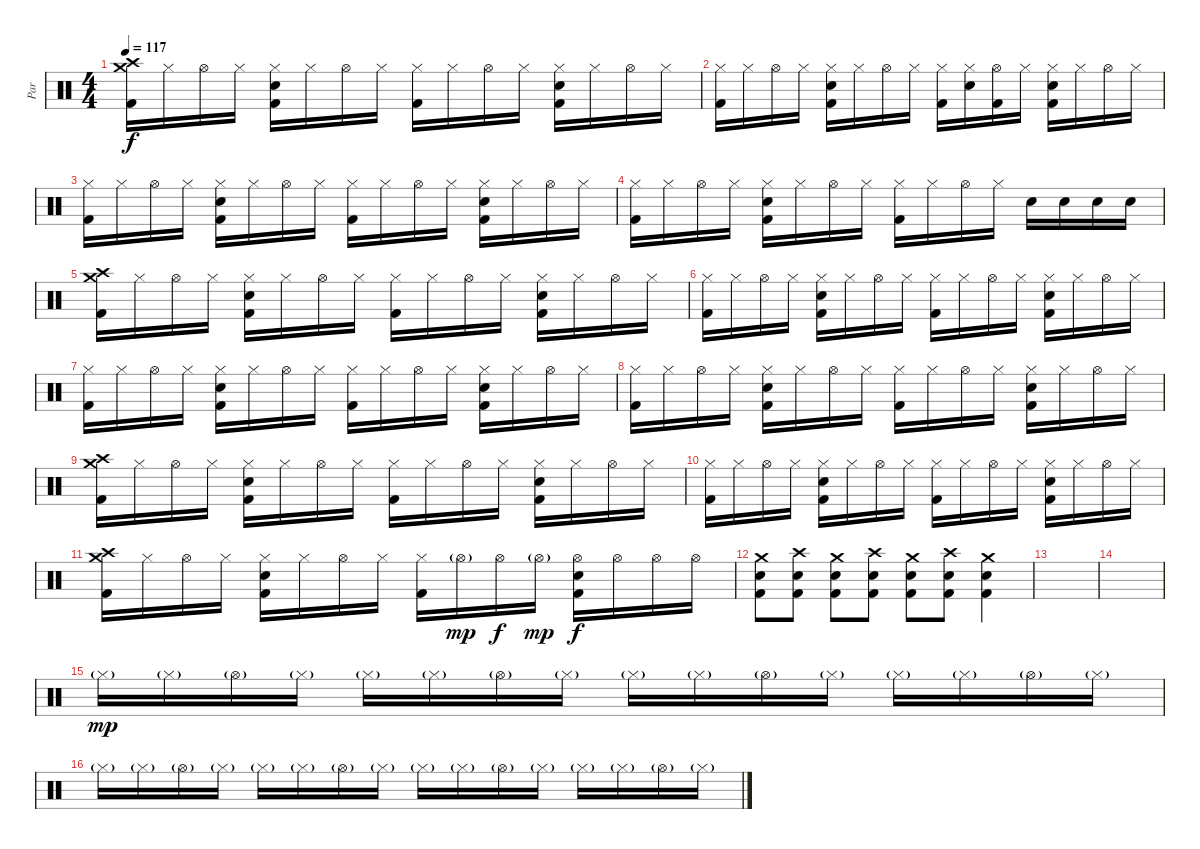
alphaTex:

\track ("Par" "Par") {instrument percussion}
\staff {score}
\articulation defaults
\ts (4 4)
\tempo 117
\clef neutral
\ks c
("Crash medium (hit)" "Crash high (hit)" "Kick (hit) 2").16{dy f} "Hi-Hat (closed)".16 "Hi-Hat (open)".16 "Hi-Hat (closed)".16 ("Hi-Hat (closed)" "Snare (hit) 2" "Kick (hit) 2").16 "Hi-Hat (closed)".16 "Hi-Hat (open)".16 "Hi-Hat (closed)".16 ("Hi-Hat (closed)" "Kick (hit) 2").16 "Hi-Hat (closed)".16 "Hi-Hat (open)".16 "Hi-Hat (closed)".16 ("Hi-Hat (closed)" "Snare (hit) 2" "Kick (hit) 2").16 "Hi-Hat (closed)".16 "Hi-Hat (open)".16 "Hi-Hat (closed)".16 |
("Hi-Hat (closed)" "Kick (hit) 2").16 "Hi-Hat (closed)".16 "Hi-Hat (open)".16 "Hi-Hat (closed)".16 ("Hi-Hat (closed)" "Snare (hit) 2" "Kick (hit) 2").16 "Hi-Hat (closed)".16 "Hi-Hat (open)".16 "Hi-Hat (closed)".16 ("Hi-Hat (closed)" "Kick (hit) 2").16 ("Hi-Hat (closed)" "Snare (hit) 2").16 ("Hi-Hat (open)" "Kick (hit) 2").16 "Hi-Hat (closed)".16 ("Hi-Hat (closed)" "Snare (hit) 2" "Kick (hit) 2").16 "Hi-Hat (closed)".16 "Hi-Hat (open)".16 "Hi-Hat (closed)".16 |
("Hi-Hat (closed)" "Kick (hit) 2").16 "Hi-Hat (closed)".16 "Hi-Hat (open)".16 "Hi-Hat (closed)".16 ("Hi-Hat (closed)" "Snare (hit) 2" "Kick (hit) 2").16 "Hi-Hat (closed)".16 "Hi-Hat (open)".16 "Hi-Hat (closed)".16 ("Hi-Hat (closed)" "Kick (hit) 2").16 "Hi-Hat (closed)".16 "Hi-Hat (open)".16 "Hi-Hat (closed)".16 ("Hi-Hat (closed)" "Snare (hit) 2" "Kick (hit) 2").16 "Hi-Hat (closed)".16 "Hi-Hat (open)".16 "Hi-Hat (closed)".16 |
("Hi-Hat (closed)" "Kick (hit) 2").16 "Hi-Hat (closed)".16 "Hi-Hat (open)".16 "Hi-Hat (closed)".16 ("Hi-Hat (closed)" "Snare (hit) 2" "Kick (hit) 2").16 "Hi-Hat (closed)".16 "Hi-Hat (open)".16 "Hi-Hat (closed)".16 ("Hi-Hat (closed)" "Kick (hit) 2").16 "Hi-Hat (closed)".16 "Hi-Hat (open)".16 "Hi-Hat (closed)".16 "Snare (hit) 2".16 "Snare (hit) 2".16 "Snare (hit) 2".16 "Snare (hit) 2".16 |
("Crash medium (hit)" "Crash high (hit)" "Kick (hit) 2").16 "Hi-Hat (closed)".16 "Hi-Hat (open)".16 "Hi-Hat (closed)".16 ("Hi-Hat (closed)" "Snare (hit) 2" "Kick (hit) 2").16 "Hi-Hat (closed)".16 "Hi-Hat (open)".16 "Hi-Hat (closed)".16 ("Hi-Hat (closed)" "Kick (hit) 2").16 "Hi-Hat (closed)".16 "Hi-Hat (open)".16 "Hi-Hat (closed)".16 ("Hi-Hat (closed)" "Snare (hit) 2" "Kick (hit) 2").16 "Hi-Hat (closed)".16 "Hi-Hat (open)".16 "Hi-Hat (closed)".16 |
("Hi-Hat (closed)" "Kick (hit) 2").16 "Hi-Hat (closed)".16 "Hi-Hat (open)".16 "Hi-Hat (closed)".16 ("Hi-Hat (closed)" "Snare (hit) 2" "Kick (hit) 2").16 "Hi-Hat (closed)".16 "Hi-Hat (open)".16 "Hi-Hat (closed)".16 ("Hi-Hat (closed)" "Kick (hit) 2").16 "Hi-Hat (closed)".16 "Hi-Hat (open)".16 "Hi-Hat (closed)".16 ("Hi-Hat (closed)" "Snare (hit) 2" "Kick (hit) 2").16 "Hi-Hat (closed)".16 "Hi-Hat (open)".16 "Hi-Hat (closed)".16 |
("Hi-Hat (closed)" "Kick (hit) 2").16 "Hi-Hat (closed)".16 "Hi-Hat (open)".16 "Hi-Hat (closed)".16 ("Hi-Hat (closed)" "Snare (hit) 2" "Kick (hit) 2").16 "Hi-Hat (closed)".16 "Hi-Hat (open)".16 "Hi-Hat (closed)".16 ("Hi-Hat (closed)" "Kick (hit) 2").16 "Hi-Hat (closed)".16 "Hi-Hat (open)".16 "Hi-Hat (closed)".16 ("Hi-Hat (closed)" "Snare (hit) 2" "Kick (hit) 2").16 "Hi-Hat (closed)".16 "Hi-Hat (open)".16 "Hi-Hat (closed)".16 |
("Hi-Hat (closed)" "Kick (hit) 2").16 "Hi-Hat (closed)".16 "Hi-Hat (open)".16 "Hi-Hat (closed)".16 ("Hi-Hat (closed)" "Snare (hit) 2" "Kick (hit) 2").16 "Hi-Hat (closed)".16 "Hi-Hat (open)".16 "Hi-Hat (closed)".16 ("Hi-Hat (closed)" "Kick (hit) 2").16 "Hi-Hat (closed)".16 "Hi-Hat (open)".16 "Hi-Hat (closed)".16 ("Hi-Hat (closed)" "Snare (hit) 2" "Kick (hit) 2").16 "Hi-Hat (closed)".16 "Hi-Hat (open)".16 "Hi-Hat (closed)".16 |
("Crash medium (hit)" "Crash high (hit)" "Kick (hit) 2").16 "Hi-Hat (closed)".16 "Hi-Hat (open)".16 "Hi-Hat (closed)".16 ("Hi-Hat (closed)" "Snare (hit) 2" "Kick (hit) 2").16 "Hi-Hat (closed)".16 "Hi-Hat (open)".16 "Hi-Hat (closed)".16 ("Hi-Hat (closed)" "Kick (hit) 2").16 "Hi-Hat (closed)".16 "Hi-Hat (open)".16 "Hi-Hat (closed)".16 ("Hi-Hat (closed)" "Snare (hit) 2" "Kick (hit) 2").16 "Hi-Hat (closed)".16 "Hi-Hat (open)".16 "Hi-Hat (closed)".16 |
("Hi-Hat (closed)" "Kick (hit) 2").16 "Hi-Hat (closed)".16 "Hi-Hat (open)".16 "Hi-Hat (closed)".16 ("Hi-Hat (closed)" "Snare (hit) 2" "Kick (hit) 2").16 "Hi-Hat (closed)".16 "Hi-Hat (open)".16 "Hi-Hat (closed)".16 ("Hi-Hat (closed)" "Kick (hit) 2").16 "Hi-Hat (closed)".16 "Hi-Hat (open)".16 "Hi-Hat (closed)".16 ("Hi-Hat (closed)" "Snare (hit) 2" "Kick (hit) 2").16 "Hi-Hat (closed)".16 "Hi-Hat (open)".16 "Hi-Hat (closed)".16 |
("Crash medium (hit)" "Crash high (hit)" "Kick (hit) 2").16 "Hi-Hat (closed)".16 "Hi-Hat (open)".16 "Hi-Hat (closed)".16 ("Hi-Hat (closed)" "Snare (hit) 2" "Kick (hit) 2").16 "Hi-Hat (closed)".16 "Hi-Hat (open)".16 "Hi-Hat (closed)".16 ("Hi-Hat (closed)" "Kick (hit) 2").16 "Hi-Hat (open)"{g}.16{dy mp} "Hi-Hat (open)".16{dy f} "Hi-Hat (open)"{g}.16{dy mp} ("Hi-Hat (open)" "Snare (hit) 2" "Kick (hit) 2").16{dy f} "Hi-Hat (open)".16 "Hi-Hat (open)".16 "Hi-Hat (open)".16 |
("Crash medium (hit)" "Snare (hit) 2" "Kick (hit) 2").8 ("Crash high (hit)" "Snare (hit) 2" "Kick (hit) 2").8 ("Crash medium (hit)" "Snare (hit) 2" "Kick (hit) 2").8 ("Crash high (hit)" "Snare (hit) 2" "Kick (hit) 2").8 ("Crash medium (hit)" "Snare (hit) 2" "Kick (hit) 2").8 ("Crash high (hit)" "Snare (hit) 2" "Kick (hit) 2").8 ("Crash medium (hit)" "Snare (hit) 2" "Kick (hit) 2").4 |
|
|
"Hi-Hat (closed)"{g}.16{dy mp} "Hi-Hat (closed)"{g}.16 "Hi-Hat (open)"{g}.16 "Hi-Hat (closed)"{g}.16 "Hi-Hat (closed)"{g}.16 "Hi-Hat (closed)"{g}.16 "Hi-Hat (open)"{g}.16 "Hi-Hat (closed)"{g}.16 "Hi-Hat (closed)"{g}.16 "Hi-Hat (closed)"{g}.16 "Hi-Hat (open)"{g}.16 "Hi-Hat (closed)"{g}.16 "Hi-Hat (closed)"{g}.16 "Hi-Hat (closed)"{g}.16 "Hi-Hat (open)"{g}.16 "Hi-Hat (closed)"{g}.16 |
"Hi-Hat (closed)"{g}.16 "Hi-Hat (closed)"{g}.16 "Hi-Hat (open)"{g}.16 "Hi-Hat (closed)"{g}.16 "Hi-Hat (closed)"{g}.16 "Hi-Hat (closed)"{g}.16 "Hi-Hat (open)"{g}.16 "Hi-Hat (closed)"{g}.16 "Hi-Hat (closed)"{g}.16 "Hi-Hat (closed)"{g}.16 "Hi-Hat (open)"{g}.16 "Hi-Hat (closed)"{g}.16 "Hi-Hat (closed)"{g}.16 "Hi-Hat (closed)"{g}.16 "Hi-Hat (open)"{g}.16 "Hi-Hat (closed)"{g}.16
